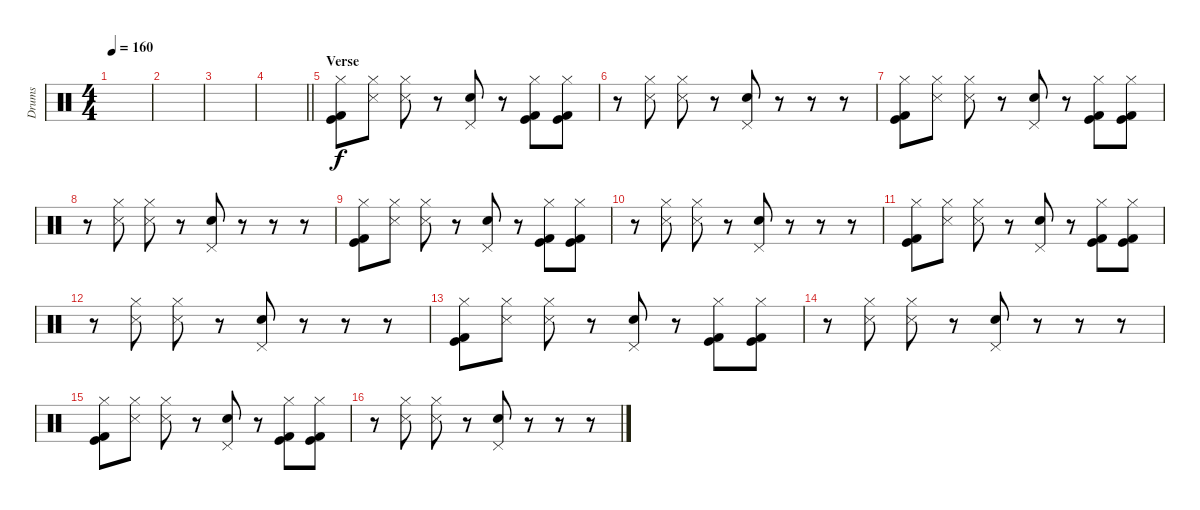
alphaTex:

\track ("Drums" "Drums") {instrument percussion}
\staff {score}
\articulation defaults
\ts (4 4)
\tempo 160
\clef neutral
\ks c
|
|
|
\barLineRight lightlight
|
\section ("" "Verse")
("Kick (hit)" "Kick (hit) 2" "Hi-Hat (closed)").8 ("Metronome (hit)" "Hi-Hat (closed)").8 ("Metronome (hit)" "Hi-Hat (closed)").8 r.8 ("Pedal Hi-Hat (hit)" "Electric Snare (hit)").8 r.8 ("Kick (hit)" "Kick (hit) 2" "Hi-Hat (closed)").8 ("Kick (hit)" "Kick (hit) 2" "Hi-Hat (closed)").8 |
r.8 ("Metronome (hit)" "Hi-Hat (closed)").8 ("Metronome (hit)" "Hi-Hat (closed)").8 r.8 ("Pedal Hi-Hat (hit)" "Electric Snare (hit)").8 r.8 r.8 r.8 |
("Kick (hit)" "Kick (hit) 2" "Hi-Hat (closed)").8 ("Metronome (hit)" "Hi-Hat (closed)").8 ("Metronome (hit)" "Hi-Hat (closed)").8 r.8 ("Pedal Hi-Hat (hit)" "Electric Snare (hit)").8 r.8 ("Kick (hit)" "Kick (hit) 2" "Hi-Hat (closed)").8 ("Kick (hit)" "Kick (hit) 2" "Hi-Hat (closed)").8 |
r.8 ("Metronome (hit)" "Hi-Hat (closed)").8 ("Metronome (hit)" "Hi-Hat (closed)").8 r.8 ("Pedal Hi-Hat (hit)" "Electric Snare (hit)").8 r.8 r.8 r.8 |
("Kick (hit)" "Kick (hit) 2" "Hi-Hat (closed)").8 ("Metronome (hit)" "Hi-Hat (closed)").8 ("Metronome (hit)" "Hi-Hat (closed)").8 r.8 ("Pedal Hi-Hat (hit)" "Electric Snare (hit)").8 r.8 ("Kick (hit)" "Kick (hit) 2" "Hi-Hat (closed)").8 ("Kick (hit)" "Kick (hit) 2" "Hi-Hat (closed)").8 |
r.8 ("Metronome (hit)" "Hi-Hat (closed)").8 ("Metronome (hit)" "Hi-Hat (closed)").8 r.8 ("Pedal Hi-Hat (hit)" "Electric Snare (hit)").8 r.8 r.8 r.8 |
("Kick (hit)" "Kick (hit) 2" "Hi-Hat (closed)").8 ("Metronome (hit)" "Hi-Hat (closed)").8 ("Metronome (hit)" "Hi-Hat (closed)").8 r.8 ("Pedal Hi-Hat (hit)" "Electric Snare (hit)").8 r.8 ("Kick (hit)" "Kick (hit) 2" "Hi-Hat (closed)").8 ("Kick (hit)" "Kick (hit) 2" "Hi-Hat (closed)").8 |
r.8 ("Metronome (hit)" "Hi-Hat (closed)").8 ("Metronome (hit)" "Hi-Hat (closed)").8 r.8 ("Pedal Hi-Hat (hit)" "Electric Snare (hit)").8 r.8 r.8 r.8 |
("Kick (hit)" "Kick (hit) 2" "Hi-Hat (closed)").8 ("Metronome (hit)" "Hi-Hat (closed)").8 ("Metronome (hit)" "Hi-Hat (closed)").8 r.8 ("Pedal Hi-Hat (hit)" "Electric Snare (hit)").8 r.8 ("Kick (hit)" "Kick (hit) 2" "Hi-Hat (closed)").8 ("Kick (hit)" "Kick (hit) 2" "Hi-Hat (closed)").8 |
r.8 ("Metronome (hit)" "Hi-Hat (closed)").8 ("Metronome (hit)" "Hi-Hat (closed)").8 r.8 ("Pedal Hi-Hat (hit)" "Electric Snare (hit)").8 r.8 r.8 r.8 |
("Kick (hit)" "Kick (hit) 2" "Hi-Hat (closed)").8 ("Metronome (hit)" "Hi-Hat (closed)").8 ("Metronome (hit)" "Hi-Hat (closed)").8 r.8 ("Pedal Hi-Hat (hit)" "Electric Snare (hit)").8 r.8 ("Kick (hit)" "Kick (hit) 2" "Hi-Hat (closed)").8 ("Kick (hit)" "Kick (hit) 2" "Hi-Hat (closed)").8 |
r.8 ("Metronome (hit)" "Hi-Hat (closed)").8 ("Metronome (hit)" "Hi-Hat (closed)").8 r.8 ("Pedal Hi-Hat (hit)" "Electric Snare (hit)").8 r.8 r.8 r.8
